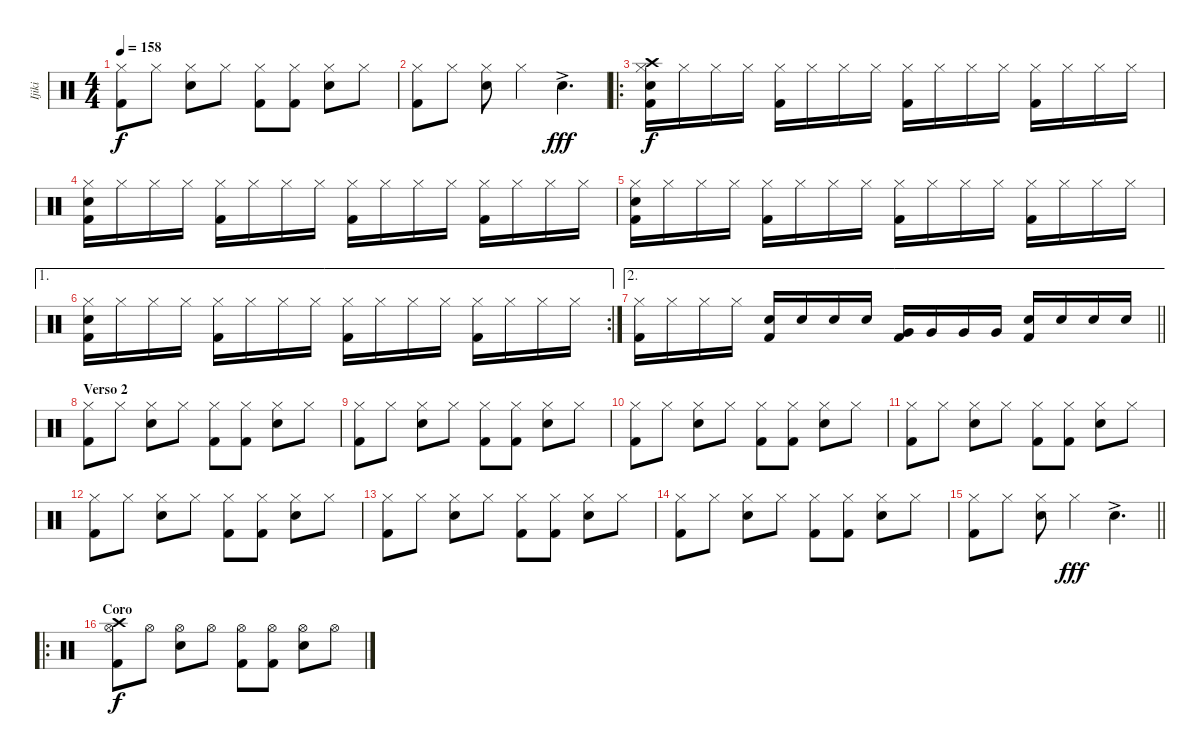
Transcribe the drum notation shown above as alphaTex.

\track ("Ijiki" "Ijiki") {instrument percussion}
\staff {score}
\articulation defaults
\ts (4 4)
\tempo 158
\clef neutral
\ks c
("Hi-Hat (closed)" "Kick (hit) 2").8{dy f} "Hi-Hat (closed)".8 ("Hi-Hat (closed)" "Snare (hit) 2").8 "Hi-Hat (closed)".8 ("Hi-Hat (closed)" "Kick (hit) 2").8 ("Hi-Hat (closed)" "Kick (hit) 2").8 ("Hi-Hat (closed)" "Snare (hit) 2").8 "Hi-Hat (closed)".8 |
("Hi-Hat (closed)" "Kick (hit) 2").8 "Hi-Hat (closed)".8 ("Hi-Hat (closed)" "Snare (hit) 2").8 "Hi-Hat (closed)".4 "Snare (hit) 2"{ac}.4{d dy fff} |
\ro
("Hi-Hat (closed)" "Kick (hit) 2" "Crash high (hit)" "Snare (hit) 2").16{dy f} "Hi-Hat (closed)".16 "Hi-Hat (closed)".16 "Hi-Hat (closed)".16 ("Hi-Hat (closed)" "Kick (hit) 2").16 "Hi-Hat (closed)".16 "Hi-Hat (closed)".16 "Hi-Hat (closed)".16 ("Hi-Hat (closed)" "Kick (hit) 2").16 "Hi-Hat (closed)".16 "Hi-Hat (closed)".16 "Hi-Hat (closed)".16 ("Hi-Hat (closed)" "Kick (hit) 2").16 "Hi-Hat (closed)".16 "Hi-Hat (closed)".16 "Hi-Hat (closed)".16 |
("Hi-Hat (closed)" "Kick (hit) 2" "Snare (hit) 2").16 "Hi-Hat (closed)".16 "Hi-Hat (closed)".16 "Hi-Hat (closed)".16 ("Hi-Hat (closed)" "Kick (hit) 2").16 "Hi-Hat (closed)".16 "Hi-Hat (closed)".16 "Hi-Hat (closed)".16 ("Hi-Hat (closed)" "Kick (hit) 2").16 "Hi-Hat (closed)".16 "Hi-Hat (closed)".16 "Hi-Hat (closed)".16 ("Hi-Hat (closed)" "Kick (hit) 2").16 "Hi-Hat (closed)".16 "Hi-Hat (closed)".16 "Hi-Hat (closed)".16 |
("Hi-Hat (closed)" "Kick (hit) 2" "Snare (hit) 2").16 "Hi-Hat (closed)".16 "Hi-Hat (closed)".16 "Hi-Hat (closed)".16 ("Hi-Hat (closed)" "Kick (hit) 2").16 "Hi-Hat (closed)".16 "Hi-Hat (closed)".16 "Hi-Hat (closed)".16 ("Hi-Hat (closed)" "Kick (hit) 2").16 "Hi-Hat (closed)".16 "Hi-Hat (closed)".16 "Hi-Hat (closed)".16 ("Hi-Hat (closed)" "Kick (hit) 2").16 "Hi-Hat (closed)".16 "Hi-Hat (closed)".16 "Hi-Hat (closed)".16 |
\ae 1
\rc 2
("Hi-Hat (closed)" "Kick (hit) 2" "Snare (hit) 2").16 "Hi-Hat (closed)".16 "Hi-Hat (closed)".16 "Hi-Hat (closed)".16 ("Hi-Hat (closed)" "Kick (hit) 2").16 "Hi-Hat (closed)".16 "Hi-Hat (closed)".16 "Hi-Hat (closed)".16 ("Hi-Hat (closed)" "Kick (hit) 2").16 "Hi-Hat (closed)".16 "Hi-Hat (closed)".16 "Hi-Hat (closed)".16 ("Hi-Hat (closed)" "Kick (hit) 2").16 "Hi-Hat (closed)".16 "Hi-Hat (closed)".16 "Hi-Hat (closed)".16 |
\ae 2
\barLineRight lightlight
("Hi-Hat (closed)" "Kick (hit) 2").16 "Hi-Hat (closed)".16 "Hi-Hat (closed)".16 "Hi-Hat (closed)".16 ("Snare (hit) 2" "Kick (hit) 2").16 "Snare (hit) 2".16 "Snare (hit) 2".16 "Snare (hit) 2".16 ("Very Low Tom (hit)" "Kick (hit) 2").16 "Very Low Tom (hit)".16 "Very Low Tom (hit)".16 "Very Low Tom (hit)".16 ("Snare (hit) 2" "Kick (hit) 2").16 "Snare (hit) 2".16 "Snare (hit) 2".16 "Snare (hit) 2".16 |
\section ("" "Verso 2")
("Hi-Hat (closed)" "Kick (hit) 2").8 "Hi-Hat (closed)".8 ("Hi-Hat (closed)" "Snare (hit) 2").8 "Hi-Hat (closed)".8 ("Hi-Hat (closed)" "Kick (hit) 2").8 ("Hi-Hat (closed)" "Kick (hit) 2").8 ("Hi-Hat (closed)" "Snare (hit) 2").8 "Hi-Hat (closed)".8 |
("Hi-Hat (closed)" "Kick (hit) 2").8 "Hi-Hat (closed)".8 ("Hi-Hat (closed)" "Snare (hit) 2").8 "Hi-Hat (closed)".8 ("Hi-Hat (closed)" "Kick (hit) 2").8 ("Hi-Hat (closed)" "Kick (hit) 2").8 ("Hi-Hat (closed)" "Snare (hit) 2").8 "Hi-Hat (closed)".8 |
("Hi-Hat (closed)" "Kick (hit) 2").8 "Hi-Hat (closed)".8 ("Hi-Hat (closed)" "Snare (hit) 2").8 "Hi-Hat (closed)".8 ("Hi-Hat (closed)" "Kick (hit) 2").8 ("Hi-Hat (closed)" "Kick (hit) 2").8 ("Hi-Hat (closed)" "Snare (hit) 2").8 "Hi-Hat (closed)".8 |
("Hi-Hat (closed)" "Kick (hit) 2").8 "Hi-Hat (closed)".8 ("Hi-Hat (closed)" "Snare (hit) 2").8 "Hi-Hat (closed)".8 ("Hi-Hat (closed)" "Kick (hit) 2").8 ("Hi-Hat (closed)" "Kick (hit) 2").8 ("Hi-Hat (closed)" "Snare (hit) 2").8 "Hi-Hat (closed)".8 |
("Hi-Hat (closed)" "Kick (hit) 2").8 "Hi-Hat (closed)".8 ("Hi-Hat (closed)" "Snare (hit) 2").8 "Hi-Hat (closed)".8 ("Hi-Hat (closed)" "Kick (hit) 2").8 ("Hi-Hat (closed)" "Kick (hit) 2").8 ("Hi-Hat (closed)" "Snare (hit) 2").8 "Hi-Hat (closed)".8 |
("Hi-Hat (closed)" "Kick (hit) 2").8 "Hi-Hat (closed)".8 ("Hi-Hat (closed)" "Snare (hit) 2").8 "Hi-Hat (closed)".8 ("Hi-Hat (closed)" "Kick (hit) 2").8 ("Hi-Hat (closed)" "Kick (hit) 2").8 ("Hi-Hat (closed)" "Snare (hit) 2").8 "Hi-Hat (closed)".8 |
("Hi-Hat (closed)" "Kick (hit) 2").8 "Hi-Hat (closed)".8 ("Hi-Hat (closed)" "Snare (hit) 2").8 "Hi-Hat (closed)".8 ("Hi-Hat (closed)" "Kick (hit) 2").8 ("Hi-Hat (closed)" "Kick (hit) 2").8 ("Hi-Hat (closed)" "Snare (hit) 2").8 "Hi-Hat (closed)".8 |
\barLineRight lightlight
("Hi-Hat (closed)" "Kick (hit) 2").8 "Hi-Hat (closed)".8 ("Hi-Hat (closed)" "Snare (hit) 2").8 "Hi-Hat (closed)".4{dy fff} "Snare (hit) 2"{ac}.4{d} |
\ro
\section ("" "Coro")
("Hi-Hat (open)" "Kick (hit) 2" "Crash high (hit)").8{dy f} "Hi-Hat (open)".8 ("Hi-Hat (open)" "Snare (hit) 2").8 "Hi-Hat (open)".8 ("Hi-Hat (open)" "Kick (hit) 2").8 ("Hi-Hat (open)" "Kick (hit) 2").8 ("Hi-Hat (open)" "Snare (hit) 2").8 "Hi-Hat (open)".8
